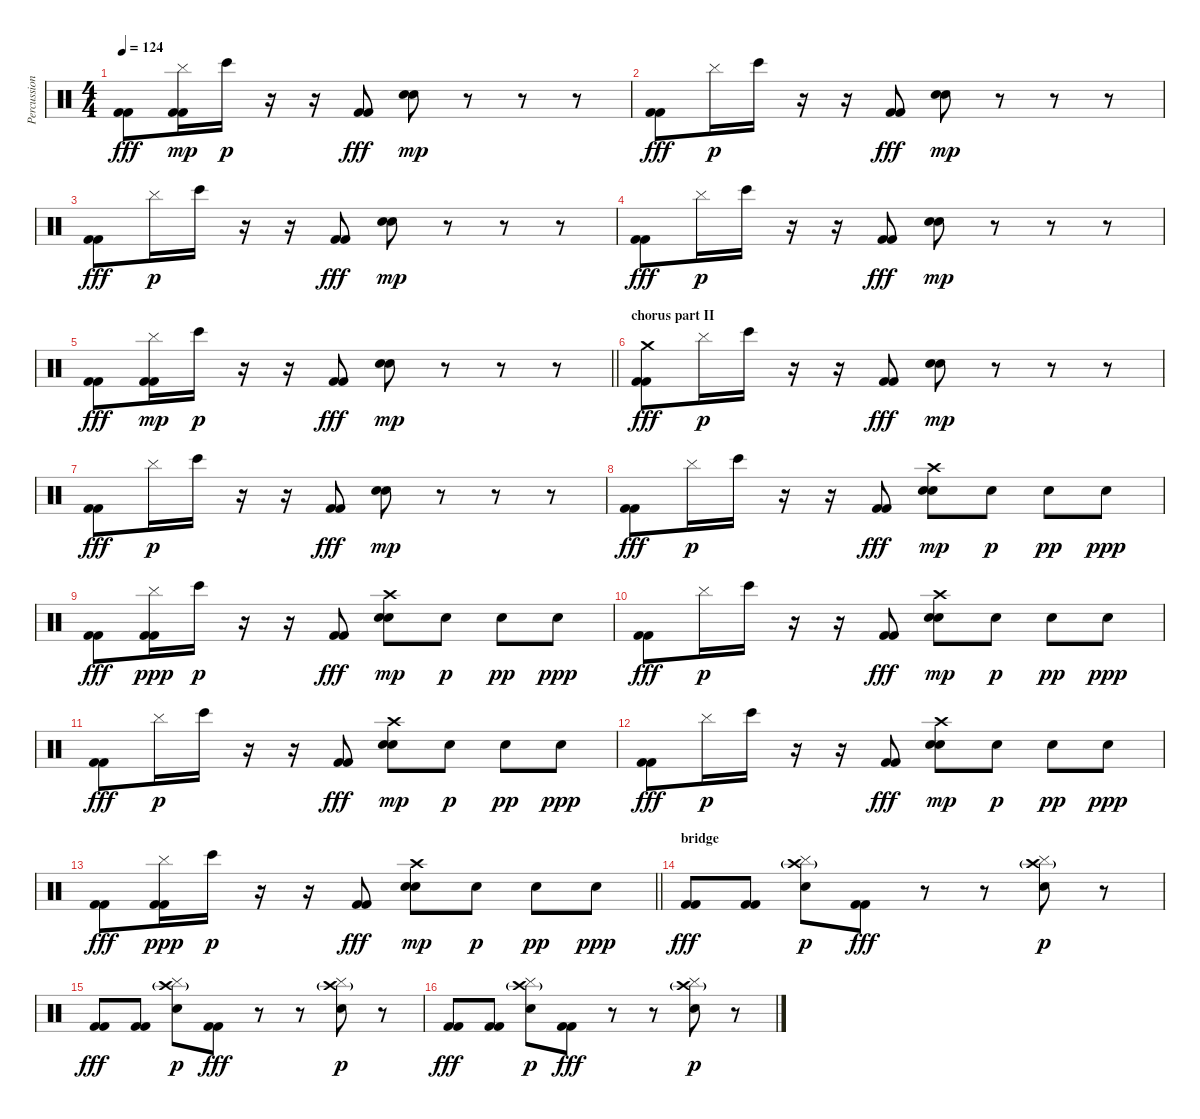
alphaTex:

\track ("Percussions" "Percussion") {instrument percussion}
\staff {score}
\articulation defaults
\ts (4 4)
\tempo 124
\clef neutral
\ks c
("Kick (hit) 2" "Kick (hit) 2").8{dy fff} ("Cymbal (hit)" "Kick (hit) 2" "Kick (hit) 2").16{dy mp} "Bongo High (hit)".16{dy p} r.16 r.16 ("Kick (hit) 2" "Kick (hit) 2").8{dy fff} ("Electric Snare (hit)" "Hand Clap (hit)").8{dy mp} r.8 r.8 r.8 |
("Kick (hit) 2" "Kick (hit) 2").8{dy fff} "Cymbal (hit)".16{dy p} "Bongo High (hit)".16 r.16 r.16 ("Kick (hit) 2" "Kick (hit) 2").8{dy fff} ("Electric Snare (hit)" "Hand Clap (hit)").8{dy mp} r.8 r.8 r.8 |
("Kick (hit) 2" "Kick (hit) 2").8{dy fff} "Cymbal (hit)".16{dy p} "Bongo High (hit)".16 r.16 r.16 ("Kick (hit) 2" "Kick (hit) 2").8{dy fff} ("Electric Snare (hit)" "Hand Clap (hit)").8{dy mp} r.8 r.8 r.8 |
("Kick (hit) 2" "Kick (hit) 2").8{dy fff} "Cymbal (hit)".16{dy p} "Bongo High (hit)".16 r.16 r.16 ("Kick (hit) 2" "Kick (hit) 2").8{dy fff} ("Electric Snare (hit)" "Hand Clap (hit)").8{dy mp} r.8 r.8 r.8 |
\barLineRight lightlight
("Kick (hit) 2" "Kick (hit) 2").8{dy fff} ("Cymbal (hit)" "Kick (hit) 2" "Kick (hit) 2").16{dy mp} "Bongo High (hit)".16{dy p} r.16 r.16 ("Kick (hit) 2" "Kick (hit) 2").8{dy fff} ("Electric Snare (hit)" "Hand Clap (hit)").8{dy mp} r.8 r.8 r.8 |
\section ("" "chorus part II")
("Crash medium (hit)" "Kick (hit) 2" "Kick (hit) 2").8{dy fff} "Cymbal (hit)".16{dy p} "Bongo High (hit)".16 r.16 r.16 ("Kick (hit) 2" "Kick (hit) 2").8{dy fff} ("Electric Snare (hit)" "Hand Clap (hit)").8{dy mp} r.8 r.8 r.8 |
("Kick (hit) 2" "Kick (hit) 2").8{dy fff} "Cymbal (hit)".16{dy p} "Bongo High (hit)".16 r.16 r.16 ("Kick (hit) 2" "Kick (hit) 2").8{dy fff} ("Electric Snare (hit)" "Hand Clap (hit)").8{dy mp} r.8 r.8 r.8 |
("Kick (hit) 2" "Kick (hit) 2").8{dy fff} "Cymbal (hit)".16{dy p} "Bongo High (hit)".16 r.16 r.16 ("Kick (hit) 2" "Kick (hit) 2").8{dy fff} ("Crash high (hit)" "Electric Snare (hit)" "Hand Clap (hit)").8{dy mp} "Electric Snare (hit)".8{dy p} "Electric Snare (hit)".8{dy pp} "Electric Snare (hit)".8{dy ppp} |
("Kick (hit) 2" "Kick (hit) 2").8{dy fff} ("Cymbal (hit)" "Kick (hit) 2" "Kick (hit) 2").16{dy ppp} "Bongo High (hit)".16{dy p} r.16 r.16 ("Kick (hit) 2" "Kick (hit) 2").8{dy fff} ("Crash high (hit)" "Electric Snare (hit)" "Hand Clap (hit)").8{dy mp} "Electric Snare (hit)".8{dy p} "Electric Snare (hit)".8{dy pp} "Electric Snare (hit)".8{dy ppp} |
("Kick (hit) 2" "Kick (hit) 2").8{dy fff} "Cymbal (hit)".16{dy p} "Bongo High (hit)".16 r.16 r.16 ("Kick (hit) 2" "Kick (hit) 2").8{dy fff} ("Crash high (hit)" "Electric Snare (hit)" "Hand Clap (hit)").8{dy mp} "Electric Snare (hit)".8{dy p} "Electric Snare (hit)".8{dy pp} "Electric Snare (hit)".8{dy ppp} |
("Kick (hit) 2" "Kick (hit) 2").8{dy fff} "Cymbal (hit)".16{dy p} "Bongo High (hit)".16 r.16 r.16 ("Kick (hit) 2" "Kick (hit) 2").8{dy fff} ("Crash high (hit)" "Electric Snare (hit)" "Hand Clap (hit)").8{dy mp} "Electric Snare (hit)".8{dy p} "Electric Snare (hit)".8{dy pp} "Electric Snare (hit)".8{dy ppp} |
("Kick (hit) 2" "Kick (hit) 2").8{dy fff} "Cymbal (hit)".16{dy p} "Bongo High (hit)".16 r.16 r.16 ("Kick (hit) 2" "Kick (hit) 2").8{dy fff} ("Crash high (hit)" "Electric Snare (hit)" "Hand Clap (hit)").8{dy mp} "Electric Snare (hit)".8{dy p} "Electric Snare (hit)".8{dy pp} "Electric Snare (hit)".8{dy ppp} |
\barLineRight lightlight
("Kick (hit) 2" "Kick (hit) 2").8{dy fff} ("Cymbal (hit)" "Kick (hit) 2" "Kick (hit) 2").16{dy ppp} "Bongo High (hit)".16{dy p} r.16 r.16 ("Kick (hit) 2" "Kick (hit) 2").8{dy fff} ("Crash high (hit)" "Electric Snare (hit)" "Hand Clap (hit)").8{dy mp} "Electric Snare (hit)".8{dy p} "Electric Snare (hit)".8{dy pp} "Electric Snare (hit)".8{dy ppp} |
\section ("" "bridge")
("Kick (hit) 2" "Kick (hit) 2").8{dy fff} ("Kick (hit) 2" "Kick (hit) 2").8 ("Crash high (hit)"{g} "Hand Clap (hit)" "Cymbal (hit)").8{dy p} ("Kick (hit) 2" "Kick (hit) 2").8{dy fff} r.8 r.8 ("Crash high (hit)"{g} "Hand Clap (hit)" "Cymbal (hit)").8{dy p} r.8 |
("Kick (hit) 2" "Kick (hit) 2").8{dy fff} ("Kick (hit) 2" "Kick (hit) 2").8 ("Crash high (hit)"{g} "Hand Clap (hit)" "Cymbal (hit)").8{dy p} ("Kick (hit) 2" "Kick (hit) 2").8{dy fff} r.8 r.8 ("Crash high (hit)"{g} "Hand Clap (hit)" "Cymbal (hit)").8{dy p} r.8 |
("Kick (hit) 2" "Kick (hit) 2").8{dy fff} ("Kick (hit) 2" "Kick (hit) 2").8 ("Crash high (hit)"{g} "Hand Clap (hit)" "Cymbal (hit)").8{dy p} ("Kick (hit) 2" "Kick (hit) 2").8{dy fff} r.8 r.8 ("Crash high (hit)"{g} "Hand Clap (hit)" "Cymbal (hit)").8{dy p} r.8
